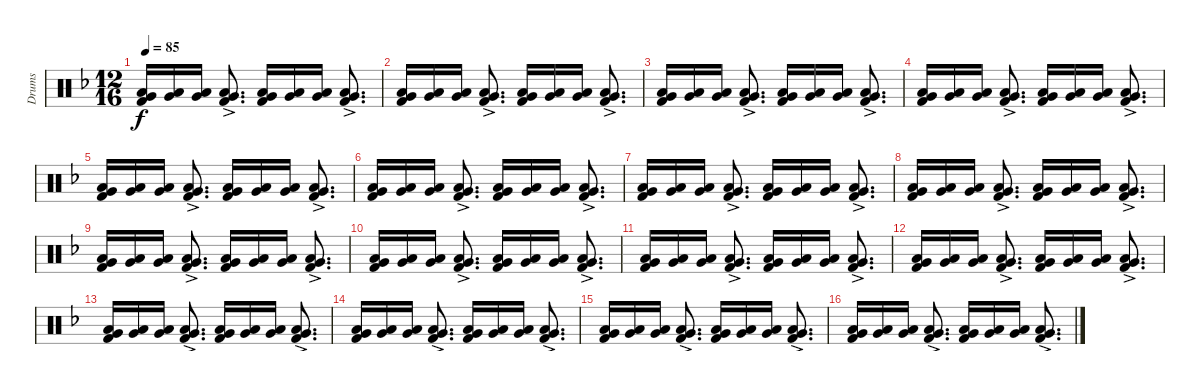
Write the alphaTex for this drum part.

\track ("Drums" "Drums") {instrument percussion}
\staff {score}
\articulation defaults
\ts (12 16)
\tempo 85
\clef neutral
\ks dminor
("Low Tom (hit)" "Very Low Tom (hit)" "Kick (hit) 2").16{dy f volume 5} ("Low Tom (hit)" "Very Low Tom (hit)").16 ("Low Tom (hit)" "Very Low Tom (hit)").16 ("Low Tom (hit)"{ac} "Very Low Tom (hit)"{ac} "Kick (hit) 2").8{d} ("Low Tom (hit)" "Very Low Tom (hit)" "Kick (hit) 2").16 ("Low Tom (hit)" "Very Low Tom (hit)").16 ("Low Tom (hit)" "Very Low Tom (hit)").16 ("Low Tom (hit)"{ac} "Very Low Tom (hit)"{ac} "Kick (hit) 2").8{d} |
("Low Tom (hit)" "Very Low Tom (hit)" "Kick (hit) 2").16 ("Low Tom (hit)" "Very Low Tom (hit)").16 ("Low Tom (hit)" "Very Low Tom (hit)").16 ("Low Tom (hit)"{ac} "Very Low Tom (hit)"{ac} "Kick (hit) 2").8{d} ("Low Tom (hit)" "Very Low Tom (hit)" "Kick (hit) 2").16 ("Low Tom (hit)" "Very Low Tom (hit)").16 ("Low Tom (hit)" "Very Low Tom (hit)").16 ("Low Tom (hit)"{ac} "Very Low Tom (hit)"{ac} "Kick (hit) 2").8{d} |
("Low Tom (hit)" "Very Low Tom (hit)" "Kick (hit) 2").16 ("Low Tom (hit)" "Very Low Tom (hit)").16 ("Low Tom (hit)" "Very Low Tom (hit)").16 ("Low Tom (hit)"{ac} "Very Low Tom (hit)"{ac} "Kick (hit) 2").8{d} ("Low Tom (hit)" "Very Low Tom (hit)" "Kick (hit) 2").16 ("Low Tom (hit)" "Very Low Tom (hit)").16 ("Low Tom (hit)" "Very Low Tom (hit)").16 ("Low Tom (hit)"{ac} "Very Low Tom (hit)"{ac} "Kick (hit) 2").8{d} |
("Low Tom (hit)" "Very Low Tom (hit)" "Kick (hit) 2").16 ("Low Tom (hit)" "Very Low Tom (hit)").16 ("Low Tom (hit)" "Very Low Tom (hit)").16 ("Low Tom (hit)"{ac} "Very Low Tom (hit)"{ac} "Kick (hit) 2").8{d} ("Low Tom (hit)" "Very Low Tom (hit)" "Kick (hit) 2").16 ("Low Tom (hit)" "Very Low Tom (hit)").16 ("Low Tom (hit)" "Very Low Tom (hit)").16 ("Low Tom (hit)"{ac} "Very Low Tom (hit)"{ac} "Kick (hit) 2").8{d} |
("Low Tom (hit)" "Very Low Tom (hit)" "Kick (hit) 2").16 ("Low Tom (hit)" "Very Low Tom (hit)").16 ("Low Tom (hit)" "Very Low Tom (hit)").16 ("Low Tom (hit)"{ac} "Very Low Tom (hit)"{ac} "Kick (hit) 2").8{d} ("Low Tom (hit)" "Very Low Tom (hit)" "Kick (hit) 2").16 ("Low Tom (hit)" "Very Low Tom (hit)").16 ("Low Tom (hit)" "Very Low Tom (hit)").16 ("Low Tom (hit)"{ac} "Very Low Tom (hit)"{ac} "Kick (hit) 2").8{d} |
("Low Tom (hit)" "Very Low Tom (hit)" "Kick (hit) 2").16 ("Low Tom (hit)" "Very Low Tom (hit)").16 ("Low Tom (hit)" "Very Low Tom (hit)").16 ("Low Tom (hit)"{ac} "Very Low Tom (hit)"{ac} "Kick (hit) 2").8{d} ("Low Tom (hit)" "Very Low Tom (hit)" "Kick (hit) 2").16 ("Low Tom (hit)" "Very Low Tom (hit)").16 ("Low Tom (hit)" "Very Low Tom (hit)").16 ("Low Tom (hit)"{ac} "Very Low Tom (hit)"{ac} "Kick (hit) 2").8{d} |
("Low Tom (hit)" "Very Low Tom (hit)" "Kick (hit) 2").16 ("Low Tom (hit)" "Very Low Tom (hit)").16 ("Low Tom (hit)" "Very Low Tom (hit)").16 ("Low Tom (hit)"{ac} "Very Low Tom (hit)"{ac} "Kick (hit) 2").8{d} ("Low Tom (hit)" "Very Low Tom (hit)" "Kick (hit) 2").16 ("Low Tom (hit)" "Very Low Tom (hit)").16 ("Low Tom (hit)" "Very Low Tom (hit)").16 ("Low Tom (hit)"{ac} "Very Low Tom (hit)"{ac} "Kick (hit) 2").8{d} |
("Low Tom (hit)" "Very Low Tom (hit)" "Kick (hit) 2").16 ("Low Tom (hit)" "Very Low Tom (hit)").16 ("Low Tom (hit)" "Very Low Tom (hit)").16 ("Low Tom (hit)"{ac} "Very Low Tom (hit)"{ac} "Kick (hit) 2").8{d} ("Low Tom (hit)" "Very Low Tom (hit)" "Kick (hit) 2").16 ("Low Tom (hit)" "Very Low Tom (hit)").16 ("Low Tom (hit)" "Very Low Tom (hit)").16 ("Low Tom (hit)"{ac} "Very Low Tom (hit)"{ac} "Kick (hit) 2").8{d} |
("Low Tom (hit)" "Very Low Tom (hit)" "Kick (hit) 2").16 ("Low Tom (hit)" "Very Low Tom (hit)").16 ("Low Tom (hit)" "Very Low Tom (hit)").16 ("Low Tom (hit)"{ac} "Very Low Tom (hit)"{ac} "Kick (hit) 2").8{d} ("Low Tom (hit)" "Very Low Tom (hit)" "Kick (hit) 2").16 ("Low Tom (hit)" "Very Low Tom (hit)").16 ("Low Tom (hit)" "Very Low Tom (hit)").16 ("Low Tom (hit)"{ac} "Very Low Tom (hit)"{ac} "Kick (hit) 2").8{d} |
("Low Tom (hit)" "Very Low Tom (hit)" "Kick (hit) 2").16 ("Low Tom (hit)" "Very Low Tom (hit)").16 ("Low Tom (hit)" "Very Low Tom (hit)").16 ("Low Tom (hit)"{ac} "Very Low Tom (hit)"{ac} "Kick (hit) 2").8{d} ("Low Tom (hit)" "Very Low Tom (hit)" "Kick (hit) 2").16 ("Low Tom (hit)" "Very Low Tom (hit)").16 ("Low Tom (hit)" "Very Low Tom (hit)").16 ("Low Tom (hit)"{ac} "Very Low Tom (hit)"{ac} "Kick (hit) 2").8{d} |
("Low Tom (hit)" "Very Low Tom (hit)" "Kick (hit) 2").16{volume 6} ("Low Tom (hit)" "Very Low Tom (hit)").16 ("Low Tom (hit)" "Very Low Tom (hit)").16 ("Low Tom (hit)"{ac} "Very Low Tom (hit)"{ac} "Kick (hit) 2").8{d} ("Low Tom (hit)" "Very Low Tom (hit)" "Kick (hit) 2").16 ("Low Tom (hit)" "Very Low Tom (hit)").16 ("Low Tom (hit)" "Very Low Tom (hit)").16 ("Low Tom (hit)"{ac} "Very Low Tom (hit)"{ac} "Kick (hit) 2").8{d} |
("Low Tom (hit)" "Very Low Tom (hit)" "Kick (hit) 2").16 ("Low Tom (hit)" "Very Low Tom (hit)").16 ("Low Tom (hit)" "Very Low Tom (hit)").16 ("Low Tom (hit)"{ac} "Very Low Tom (hit)"{ac} "Kick (hit) 2").8{d} ("Low Tom (hit)" "Very Low Tom (hit)" "Kick (hit) 2").16 ("Low Tom (hit)" "Very Low Tom (hit)").16 ("Low Tom (hit)" "Very Low Tom (hit)").16 ("Low Tom (hit)"{ac} "Very Low Tom (hit)"{ac} "Kick (hit) 2").8{d} |
("Low Tom (hit)" "Very Low Tom (hit)" "Kick (hit) 2").16 ("Low Tom (hit)" "Very Low Tom (hit)").16 ("Low Tom (hit)" "Very Low Tom (hit)").16 ("Low Tom (hit)"{ac} "Very Low Tom (hit)"{ac} "Kick (hit) 2").8{d} ("Low Tom (hit)" "Very Low Tom (hit)" "Kick (hit) 2").16 ("Low Tom (hit)" "Very Low Tom (hit)").16 ("Low Tom (hit)" "Very Low Tom (hit)").16 ("Low Tom (hit)"{ac} "Very Low Tom (hit)"{ac} "Kick (hit) 2").8{d} |
("Low Tom (hit)" "Very Low Tom (hit)" "Kick (hit) 2").16 ("Low Tom (hit)" "Very Low Tom (hit)").16 ("Low Tom (hit)" "Very Low Tom (hit)").16 ("Low Tom (hit)"{ac} "Very Low Tom (hit)"{ac} "Kick (hit) 2").8{d} ("Low Tom (hit)" "Very Low Tom (hit)" "Kick (hit) 2").16 ("Low Tom (hit)" "Very Low Tom (hit)").16 ("Low Tom (hit)" "Very Low Tom (hit)").16 ("Low Tom (hit)"{ac} "Very Low Tom (hit)"{ac} "Kick (hit) 2").8{d} |
("Low Tom (hit)" "Very Low Tom (hit)" "Kick (hit) 2").16 ("Low Tom (hit)" "Very Low Tom (hit)").16 ("Low Tom (hit)" "Very Low Tom (hit)").16 ("Low Tom (hit)"{ac} "Very Low Tom (hit)"{ac} "Kick (hit) 2").8{d} ("Low Tom (hit)" "Very Low Tom (hit)" "Kick (hit) 2").16 ("Low Tom (hit)" "Very Low Tom (hit)").16 ("Low Tom (hit)" "Very Low Tom (hit)").16 ("Low Tom (hit)"{ac} "Very Low Tom (hit)"{ac} "Kick (hit) 2").8{d} |
("Low Tom (hit)" "Very Low Tom (hit)" "Kick (hit) 2").16 ("Low Tom (hit)" "Very Low Tom (hit)").16 ("Low Tom (hit)" "Very Low Tom (hit)").16 ("Low Tom (hit)"{ac} "Very Low Tom (hit)"{ac} "Kick (hit) 2").8{d} ("Low Tom (hit)" "Very Low Tom (hit)" "Kick (hit) 2").16 ("Low Tom (hit)" "Very Low Tom (hit)").16 ("Low Tom (hit)" "Very Low Tom (hit)").16 ("Low Tom (hit)"{ac} "Very Low Tom (hit)"{ac} "Kick (hit) 2").8{d}
